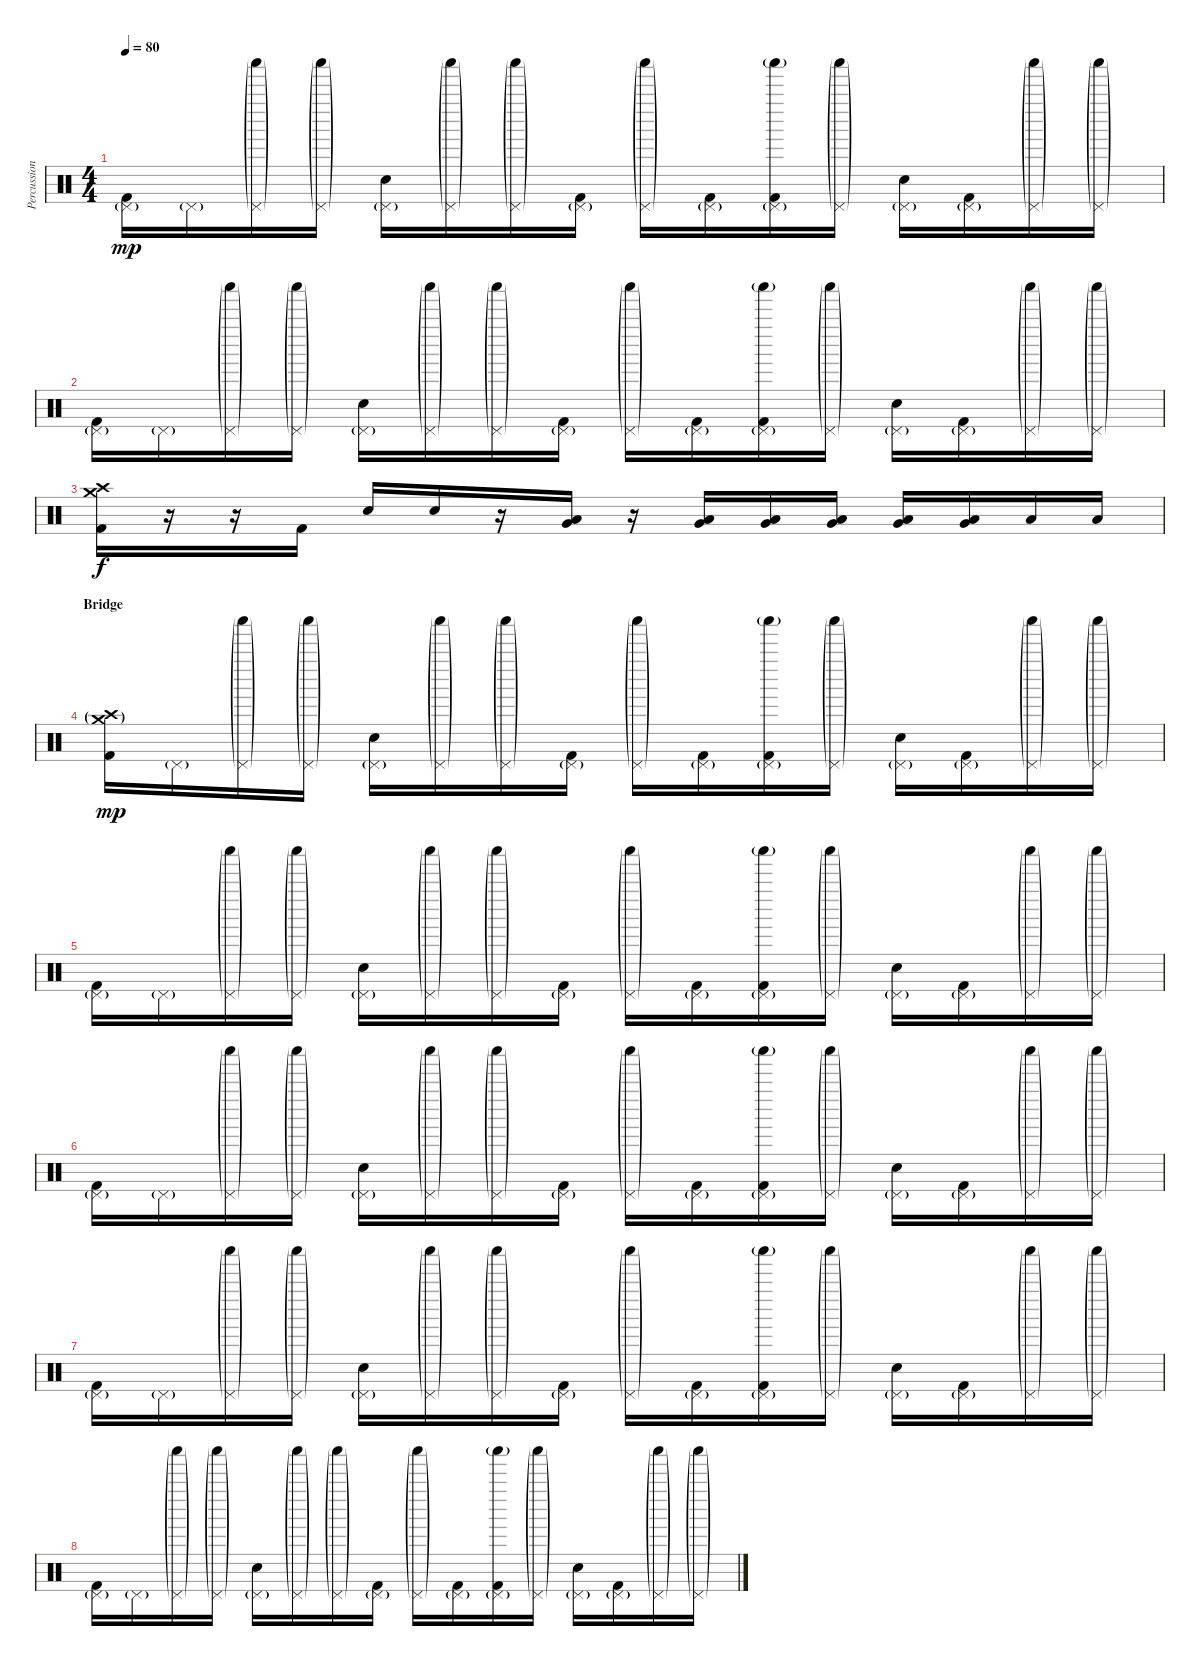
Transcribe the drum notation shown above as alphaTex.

\track ("Percussion" "Percussion") {instrument percussion}
\staff {score}
\articulation defaults
\ts (4 4)
\tempo 80
\clef neutral
\ks c
("Pedal Hi-Hat (hit)"{g} "Kick (hit) 2").16{dy mp} "Pedal Hi-Hat (hit)"{g}.16 ("Pedal Hi-Hat (hit)"{g} "Shaker (hit)"{g}).16 ("Pedal Hi-Hat (hit)"{g} "Shaker (hit)"{g}).16 ("Pedal Hi-Hat (hit)"{g} "Electric Snare (hit)").16 ("Pedal Hi-Hat (hit)"{g} "Shaker (hit)"{g}).16 ("Pedal Hi-Hat (hit)"{g} "Shaker (hit)"{g}).16 ("Pedal Hi-Hat (hit)"{g} "Kick (hit) 2").16 ("Pedal Hi-Hat (hit)"{g} "Shaker (hit)"{g}).16 ("Pedal Hi-Hat (hit)"{g} "Kick (hit) 2").16 ("Pedal Hi-Hat (hit)"{g} "Shaker (hit)"{g} "Kick (hit) 2").16 ("Pedal Hi-Hat (hit)"{g} "Shaker (hit)"{g}).16 ("Pedal Hi-Hat (hit)"{g} "Electric Snare (hit)").16 ("Pedal Hi-Hat (hit)"{g} "Kick (hit) 2").16 ("Pedal Hi-Hat (hit)"{g} "Shaker (hit)"{g}).16 ("Pedal Hi-Hat (hit)"{g} "Shaker (hit)"{g}).16 |
("Pedal Hi-Hat (hit)"{g} "Kick (hit) 2").16 "Pedal Hi-Hat (hit)"{g}.16 ("Pedal Hi-Hat (hit)"{g} "Shaker (hit)"{g}).16 ("Pedal Hi-Hat (hit)"{g} "Shaker (hit)"{g}).16 ("Pedal Hi-Hat (hit)"{g} "Electric Snare (hit)").16 ("Pedal Hi-Hat (hit)"{g} "Shaker (hit)"{g}).16 ("Pedal Hi-Hat (hit)"{g} "Shaker (hit)"{g}).16 ("Pedal Hi-Hat (hit)"{g} "Kick (hit) 2").16 ("Pedal Hi-Hat (hit)"{g} "Shaker (hit)"{g}).16 ("Pedal Hi-Hat (hit)"{g} "Kick (hit) 2").16 ("Pedal Hi-Hat (hit)"{g} "Shaker (hit)"{g} "Kick (hit) 2").16 ("Pedal Hi-Hat (hit)"{g} "Shaker (hit)"{g}).16 ("Pedal Hi-Hat (hit)"{g} "Electric Snare (hit)").16 ("Pedal Hi-Hat (hit)"{g} "Kick (hit) 2").16 ("Pedal Hi-Hat (hit)"{g} "Shaker (hit)"{g}).16 ("Pedal Hi-Hat (hit)"{g} "Shaker (hit)"{g}).16 |
("Crash high (hit)" "Crash medium (hit)" "Kick (hit) 2").16{dy f} r.16 r.16 "Kick (hit) 2".16 "Electric Snare (hit)".16 "Electric Snare (hit)".16 r.16 ("Low Tom (hit)" "Very Low Tom (hit)").16 r.16 ("Low Tom (hit)" "Very Low Tom (hit)").16 ("Low Tom (hit)" "Very Low Tom (hit)").16 ("Low Tom (hit)" "Very Low Tom (hit)").16 ("Very Low Tom (hit)" "Low Floor Tom (hit)").16 ("Very Low Tom (hit)" "Low Floor Tom (hit)").16 "Low Floor Tom (hit)".16 "Low Floor Tom (hit)".16 |
\section ("" "Bridge")
("Crash high (hit)"{g} "Crash medium (hit)"{g} "Kick (hit) 2").16{dy mp} "Pedal Hi-Hat (hit)"{g}.16 ("Pedal Hi-Hat (hit)"{g} "Shaker (hit)"{g}).16 ("Pedal Hi-Hat (hit)"{g} "Shaker (hit)"{g}).16 ("Pedal Hi-Hat (hit)"{g} "Electric Snare (hit)").16 ("Pedal Hi-Hat (hit)"{g} "Shaker (hit)"{g}).16 ("Pedal Hi-Hat (hit)"{g} "Shaker (hit)"{g}).16 ("Pedal Hi-Hat (hit)"{g} "Kick (hit) 2").16 ("Pedal Hi-Hat (hit)"{g} "Shaker (hit)"{g}).16 ("Pedal Hi-Hat (hit)"{g} "Kick (hit) 2").16 ("Pedal Hi-Hat (hit)"{g} "Shaker (hit)"{g} "Kick (hit) 2").16 ("Pedal Hi-Hat (hit)"{g} "Shaker (hit)"{g}).16 ("Pedal Hi-Hat (hit)"{g} "Electric Snare (hit)").16 ("Pedal Hi-Hat (hit)"{g} "Kick (hit) 2").16 ("Pedal Hi-Hat (hit)"{g} "Shaker (hit)"{g}).16 ("Pedal Hi-Hat (hit)"{g} "Shaker (hit)"{g}).16 |
("Pedal Hi-Hat (hit)"{g} "Kick (hit) 2").16 "Pedal Hi-Hat (hit)"{g}.16 ("Pedal Hi-Hat (hit)"{g} "Shaker (hit)"{g}).16 ("Pedal Hi-Hat (hit)"{g} "Shaker (hit)"{g}).16 ("Pedal Hi-Hat (hit)"{g} "Electric Snare (hit)").16 ("Pedal Hi-Hat (hit)"{g} "Shaker (hit)"{g}).16 ("Pedal Hi-Hat (hit)"{g} "Shaker (hit)"{g}).16 ("Pedal Hi-Hat (hit)"{g} "Kick (hit) 2").16 ("Pedal Hi-Hat (hit)"{g} "Shaker (hit)"{g}).16 ("Pedal Hi-Hat (hit)"{g} "Kick (hit) 2").16 ("Pedal Hi-Hat (hit)"{g} "Shaker (hit)"{g} "Kick (hit) 2").16 ("Pedal Hi-Hat (hit)"{g} "Shaker (hit)"{g}).16 ("Pedal Hi-Hat (hit)"{g} "Electric Snare (hit)").16 ("Pedal Hi-Hat (hit)"{g} "Kick (hit) 2").16 ("Pedal Hi-Hat (hit)"{g} "Shaker (hit)"{g}).16 ("Pedal Hi-Hat (hit)"{g} "Shaker (hit)"{g}).16 |
("Pedal Hi-Hat (hit)"{g} "Kick (hit) 2").16 "Pedal Hi-Hat (hit)"{g}.16 ("Pedal Hi-Hat (hit)"{g} "Shaker (hit)"{g}).16 ("Pedal Hi-Hat (hit)"{g} "Shaker (hit)"{g}).16 ("Pedal Hi-Hat (hit)"{g} "Electric Snare (hit)").16 ("Pedal Hi-Hat (hit)"{g} "Shaker (hit)"{g}).16 ("Pedal Hi-Hat (hit)"{g} "Shaker (hit)"{g}).16 ("Pedal Hi-Hat (hit)"{g} "Kick (hit) 2").16 ("Pedal Hi-Hat (hit)"{g} "Shaker (hit)"{g}).16 ("Pedal Hi-Hat (hit)"{g} "Kick (hit) 2").16 ("Pedal Hi-Hat (hit)"{g} "Shaker (hit)"{g} "Kick (hit) 2").16 ("Pedal Hi-Hat (hit)"{g} "Shaker (hit)"{g}).16 ("Pedal Hi-Hat (hit)"{g} "Electric Snare (hit)").16 ("Pedal Hi-Hat (hit)"{g} "Kick (hit) 2").16 ("Pedal Hi-Hat (hit)"{g} "Shaker (hit)"{g}).16 ("Pedal Hi-Hat (hit)"{g} "Shaker (hit)"{g}).16 |
("Pedal Hi-Hat (hit)"{g} "Kick (hit) 2").16 "Pedal Hi-Hat (hit)"{g}.16 ("Pedal Hi-Hat (hit)"{g} "Shaker (hit)"{g}).16 ("Pedal Hi-Hat (hit)"{g} "Shaker (hit)"{g}).16 ("Pedal Hi-Hat (hit)"{g} "Electric Snare (hit)").16 ("Pedal Hi-Hat (hit)"{g} "Shaker (hit)"{g}).16 ("Pedal Hi-Hat (hit)"{g} "Shaker (hit)"{g}).16 ("Pedal Hi-Hat (hit)"{g} "Kick (hit) 2").16 ("Pedal Hi-Hat (hit)"{g} "Shaker (hit)"{g}).16 ("Pedal Hi-Hat (hit)"{g} "Kick (hit) 2").16 ("Pedal Hi-Hat (hit)"{g} "Shaker (hit)"{g} "Kick (hit) 2").16 ("Pedal Hi-Hat (hit)"{g} "Shaker (hit)"{g}).16 ("Pedal Hi-Hat (hit)"{g} "Electric Snare (hit)").16 ("Pedal Hi-Hat (hit)"{g} "Kick (hit) 2").16 ("Pedal Hi-Hat (hit)"{g} "Shaker (hit)"{g}).16 ("Pedal Hi-Hat (hit)"{g} "Shaker (hit)"{g}).16 |
("Pedal Hi-Hat (hit)"{g} "Kick (hit) 2").16 "Pedal Hi-Hat (hit)"{g}.16 ("Pedal Hi-Hat (hit)"{g} "Shaker (hit)"{g}).16 ("Pedal Hi-Hat (hit)"{g} "Shaker (hit)"{g}).16 ("Pedal Hi-Hat (hit)"{g} "Electric Snare (hit)").16 ("Pedal Hi-Hat (hit)"{g} "Shaker (hit)"{g}).16 ("Pedal Hi-Hat (hit)"{g} "Shaker (hit)"{g}).16 ("Pedal Hi-Hat (hit)"{g} "Kick (hit) 2").16 ("Pedal Hi-Hat (hit)"{g} "Shaker (hit)"{g}).16 ("Pedal Hi-Hat (hit)"{g} "Kick (hit) 2").16 ("Pedal Hi-Hat (hit)"{g} "Shaker (hit)"{g} "Kick (hit) 2").16 ("Pedal Hi-Hat (hit)"{g} "Shaker (hit)"{g}).16 ("Pedal Hi-Hat (hit)"{g} "Electric Snare (hit)").16 ("Pedal Hi-Hat (hit)"{g} "Kick (hit) 2").16 ("Pedal Hi-Hat (hit)"{g} "Shaker (hit)"{g}).16 ("Pedal Hi-Hat (hit)"{g} "Shaker (hit)"{g}).16
